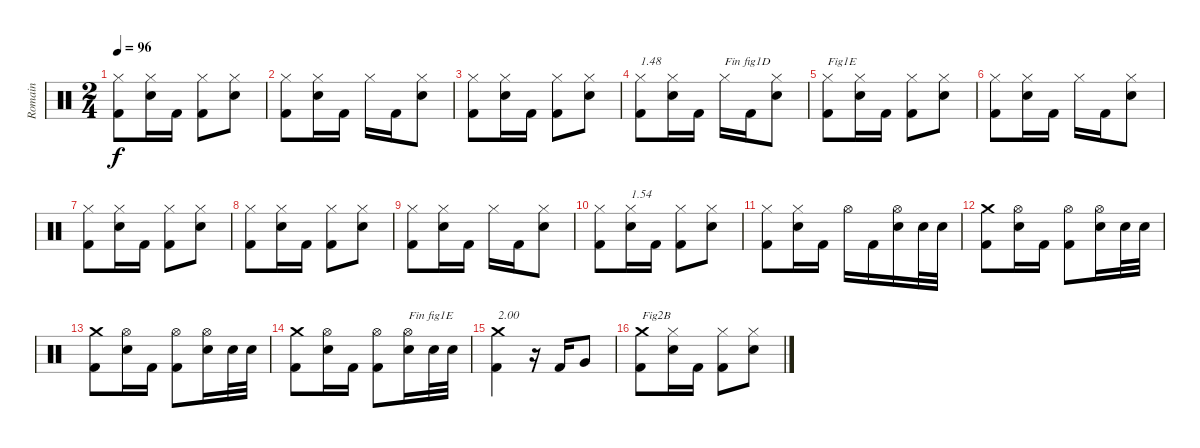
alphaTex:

\track ("Romain" "Romain") {instrument percussion}
\staff {score}
\articulation defaults
\ts (2 4)
\tempo 96
\clef neutral
\ks c
("Kick (hit) 2" "Hi-Hat (closed)").8{dy f} ("Electric Snare (hit)" "Hi-Hat (closed)").16 "Kick (hit) 2".16 ("Kick (hit) 2" "Hi-Hat (closed)").8 ("Electric Snare (hit)" "Hi-Hat (closed)").8 |
("Kick (hit) 2" "Hi-Hat (closed)").8 ("Electric Snare (hit)" "Hi-Hat (closed)").16 "Kick (hit) 2".16 "Hi-Hat (closed)".16 "Kick (hit) 2".16 ("Electric Snare (hit)" "Hi-Hat (closed)").8 |
("Kick (hit) 2" "Hi-Hat (closed)").8 ("Electric Snare (hit)" "Hi-Hat (closed)").16 "Kick (hit) 2".16 ("Kick (hit) 2" "Hi-Hat (closed)").8 ("Electric Snare (hit)" "Hi-Hat (closed)").8 |
("Kick (hit) 2" "Hi-Hat (closed)").8{txt "1.48"} ("Electric Snare (hit)" "Hi-Hat (closed)").16 "Kick (hit) 2".16 "Hi-Hat (closed)".16{txt "Fin fig1D"} "Kick (hit) 2".16 ("Electric Snare (hit)" "Hi-Hat (closed)").8 |
("Kick (hit) 2" "Hi-Hat (closed)").8{txt "Fig1E"} ("Electric Snare (hit)" "Hi-Hat (closed)").16 "Kick (hit) 2".16 ("Kick (hit) 2" "Hi-Hat (closed)").8 ("Electric Snare (hit)" "Hi-Hat (closed)").8 |
("Kick (hit) 2" "Hi-Hat (closed)").8 ("Electric Snare (hit)" "Hi-Hat (closed)").16 "Kick (hit) 2".16 "Hi-Hat (closed)".16 "Kick (hit) 2".16 ("Electric Snare (hit)" "Hi-Hat (closed)").8 |
("Kick (hit) 2" "Hi-Hat (closed)").8 ("Electric Snare (hit)" "Hi-Hat (closed)").16 "Kick (hit) 2".16 ("Kick (hit) 2" "Hi-Hat (closed)").8 ("Electric Snare (hit)" "Hi-Hat (closed)").8 |
("Kick (hit) 2" "Hi-Hat (closed)").8 ("Electric Snare (hit)" "Hi-Hat (closed)").16 "Kick (hit) 2".16 ("Kick (hit) 2" "Hi-Hat (closed)").8 ("Electric Snare (hit)" "Hi-Hat (closed)").8 |
("Kick (hit) 2" "Hi-Hat (closed)").8 ("Electric Snare (hit)" "Hi-Hat (closed)").16 "Kick (hit) 2".16 "Hi-Hat (closed)".16 "Kick (hit) 2".16 ("Electric Snare (hit)" "Hi-Hat (closed)").8 |
("Kick (hit) 2" "Hi-Hat (closed)").8 ("Electric Snare (hit)" "Hi-Hat (closed)").16{txt "1.54"} "Kick (hit) 2".16 ("Kick (hit) 2" "Hi-Hat (closed)").8 ("Electric Snare (hit)" "Hi-Hat (closed)").8 |
("Kick (hit) 2" "Hi-Hat (closed)").8 ("Electric Snare (hit)" "Hi-Hat (closed)").16 "Kick (hit) 2".16 "Hi-Hat (open)".16 "Kick (hit) 2".16 ("Electric Snare (hit)" "Hi-Hat (open)").16 "Electric Snare (hit)".32 "Electric Snare (hit)".32 |
("Kick (hit) 2" "Crash medium (hit)").8 ("Electric Snare (hit)" "Hi-Hat (open)").16 "Kick (hit) 2".16 ("Kick (hit) 2" "Hi-Hat (open)").8 ("Electric Snare (hit)" "Hi-Hat (open)").16 "Electric Snare (hit)".32 "Electric Snare (hit)".32 |
("Kick (hit) 2" "Crash medium (hit)").8 ("Electric Snare (hit)" "Hi-Hat (open)").16 "Kick (hit) 2".16 ("Kick (hit) 2" "Hi-Hat (open)").8 ("Electric Snare (hit)" "Hi-Hat (open)").16 "Electric Snare (hit)".32 "Electric Snare (hit)".32 |
("Kick (hit) 2" "Crash medium (hit)").8 ("Electric Snare (hit)" "Hi-Hat (open)").16 "Kick (hit) 2".16 ("Kick (hit) 2" "Hi-Hat (open)").8 ("Electric Snare (hit)" "Hi-Hat (open)").16{txt "Fin fig1E"} "Electric Snare (hit)".32 "Electric Snare (hit)".32 |
("Kick (hit) 2" "Crash medium (hit)").4{txt "2.00"} r.16 "Kick (hit) 2".16 "Very Low Tom (hit)".8 |
("Kick (hit) 2" "Crash medium (hit)").8{txt "Fig2B"} ("Electric Snare (hit)" "Hi-Hat (closed)").16 "Kick (hit) 2".16 ("Kick (hit) 2" "Hi-Hat (closed)").8 ("Electric Snare (hit)" "Hi-Hat (closed)").8
